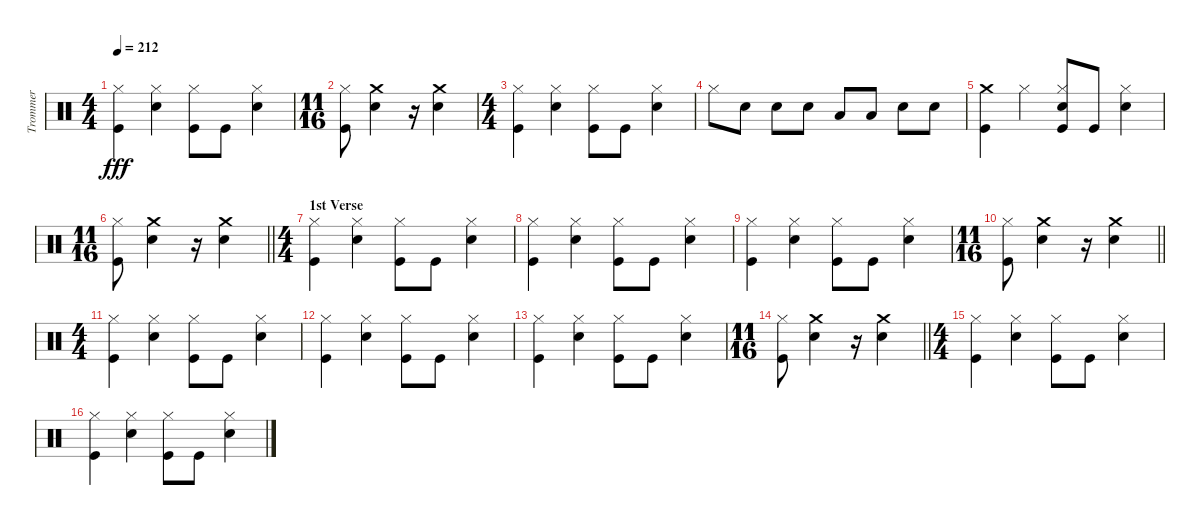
\track ("Trommer" "Trommer") {instrument percussion}
\staff {score}
\articulation defaults
\ts (4 4)
\tempo 212
\clef neutral
\ks c
("Kick (hit)" "Hi-Hat (closed)").4{dy fff} ("Hi-Hat (closed)" "Snare (hit) 2").4 ("Hi-Hat (closed)" "Kick (hit)").8 "Kick (hit)".8 ("Hi-Hat (closed)" "Snare (hit) 2").4 |
\ts (11 16)
("Hi-Hat (closed)" "Kick (hit)").8 ("Snare (hit) 2" "Crash medium (hit)").4 r.16 ("Snare (hit) 2" "Crash medium (hit)").4 |
\ts (4 4)
("Kick (hit)" "Hi-Hat (closed)").4 ("Snare (hit) 2" "Hi-Hat (closed)").4 ("Kick (hit)" "Hi-Hat (closed)").8 "Kick (hit)".8 ("Hi-Hat (closed)" "Snare (hit) 2").4 |
"Hi-Hat (closed)".8 "Snare (hit) 2".8 "Snare (hit) 2".8 "Snare (hit) 2".8 "Low Floor Tom (hit)".8 "Low Floor Tom (hit)".8 "Snare (hit) 2".8 "Snare (hit) 2".8 |
("Kick (hit)" "Crash medium (hit)").4 "Hi-Hat (closed)".4 ("Hi-Hat (closed)" "Kick (hit)" "Snare (hit) 2").8 "Kick (hit)".8 ("Snare (hit) 2" "Hi-Hat (closed)").4 |
\ts (11 16)
\barLineRight lightlight
("Kick (hit)" "Hi-Hat (closed)").8 ("Crash medium (hit)" "Snare (hit) 2").4 r.16 ("Crash medium (hit)" "Snare (hit) 2").4 |
\ts (4 4)
\section ("" "1st Verse")
("Kick (hit)" "Hi-Hat (closed)").4 ("Hi-Hat (closed)" "Snare (hit) 2").4 ("Kick (hit)" "Hi-Hat (closed)").8 "Kick (hit)".8 ("Snare (hit) 2" "Hi-Hat (closed)").4 |
("Kick (hit)" "Hi-Hat (closed)").4 ("Snare (hit) 2" "Hi-Hat (closed)").4 ("Kick (hit)" "Hi-Hat (closed)").8 "Kick (hit)".8 ("Hi-Hat (closed)" "Snare (hit) 2").4 |
("Kick (hit)" "Hi-Hat (closed)").4 ("Snare (hit) 2" "Hi-Hat (closed)").4 ("Kick (hit)" "Hi-Hat (closed)").8 "Kick (hit)".8 ("Snare (hit) 2" "Hi-Hat (closed)").4 |
\ts (11 16)
\barLineRight lightlight
("Hi-Hat (closed)" "Kick (hit)").8 ("Crash medium (hit)" "Snare (hit) 2").4 r.16 ("Crash medium (hit)" "Snare (hit) 2").4 |
\ts (4 4)
("Kick (hit)" "Hi-Hat (closed)").4 ("Snare (hit) 2" "Hi-Hat (closed)").4 ("Kick (hit)" "Hi-Hat (closed)").8 "Kick (hit)".8 ("Snare (hit) 2" "Hi-Hat (closed)").4 |
("Hi-Hat (closed)" "Kick (hit)").4 ("Snare (hit) 2" "Hi-Hat (closed)").4 ("Kick (hit)" "Hi-Hat (closed)").8 "Kick (hit)".8 ("Snare (hit) 2" "Hi-Hat (closed)").4 |
("Kick (hit)" "Hi-Hat (closed)").4 ("Snare (hit) 2" "Hi-Hat (closed)").4 ("Hi-Hat (closed)" "Kick (hit)").8 "Kick (hit)".8 ("Snare (hit) 2" "Hi-Hat (closed)").4 |
\ts (11 16)
\barLineRight lightlight
("Kick (hit)" "Hi-Hat (closed)").8 ("Crash medium (hit)" "Snare (hit) 2").4 r.16 ("Crash medium (hit)" "Snare (hit) 2").4 |
\ts (4 4)
("Kick (hit)" "Hi-Hat (closed)").4 ("Hi-Hat (closed)" "Snare (hit) 2").4 ("Kick (hit)" "Hi-Hat (closed)").8 "Kick (hit)".8 ("Snare (hit) 2" "Hi-Hat (closed)").4 |
("Kick (hit)" "Hi-Hat (closed)").4 ("Snare (hit) 2" "Hi-Hat (closed)").4 ("Kick (hit)" "Hi-Hat (closed)").8 "Kick (hit)".8 ("Snare (hit) 2" "Hi-Hat (closed)").4
